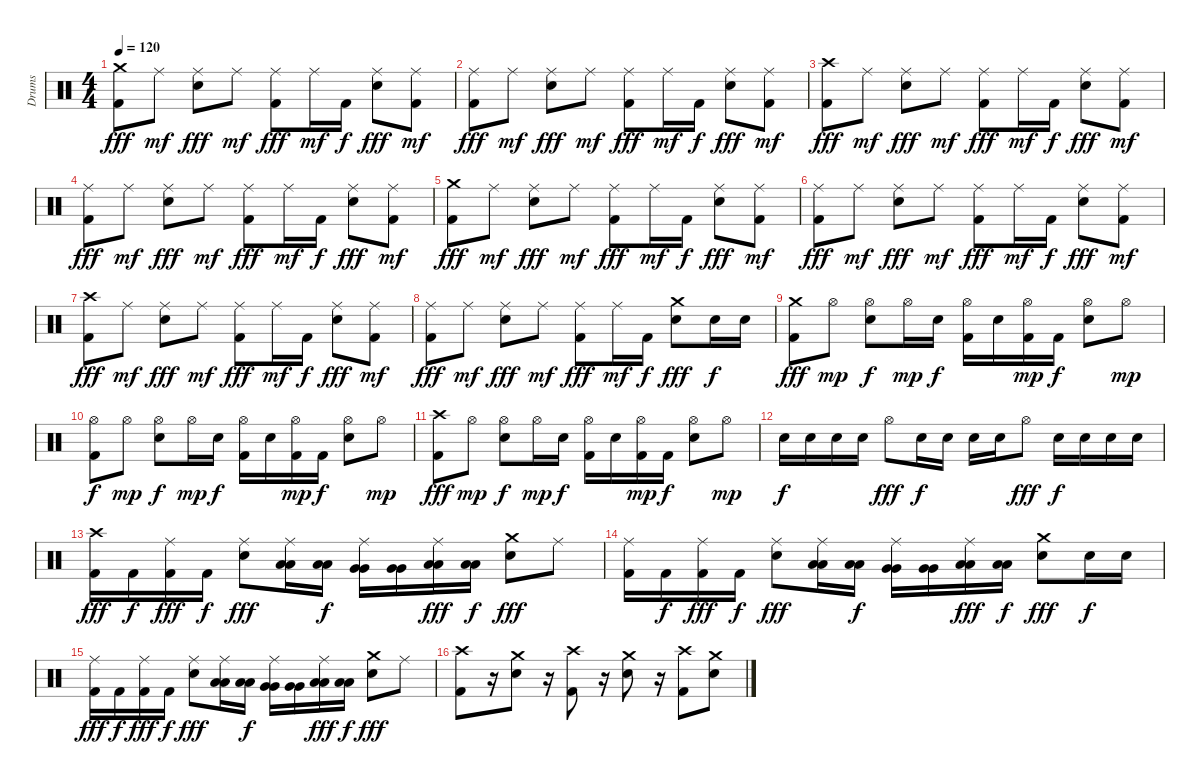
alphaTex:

\track ("Drums" "Drums") {instrument percussion}
\staff {score}
\articulation defaults
\ts (4 4)
\tempo 120
\clef neutral
\ks c
("Kick (hit) 2" "Crash medium (hit)").8{dy fff} "Ride (middle)".8{dy mf} ("Electric Snare (hit)" "Ride (middle)").8{dy fff} "Ride (middle)".8{dy mf} ("Kick (hit) 2" "Ride (middle)").8{dy fff} "Ride (middle)".16{dy mf} "Kick (hit) 2".16{dy f} ("Electric Snare (hit)" "Ride (middle)").8{dy fff} ("Kick (hit) 2" "Ride (middle)").8{dy mf} |
("Kick (hit) 2" "Ride (middle)").8{dy fff} "Ride (middle)".8{dy mf} ("Electric Snare (hit)" "Ride (middle)").8{dy fff} "Ride (middle)".8{dy mf} ("Kick (hit) 2" "Ride (middle)").8{dy fff} "Ride (middle)".16{dy mf} "Kick (hit) 2".16{dy f} ("Electric Snare (hit)" "Ride (middle)").8{dy fff} ("Kick (hit) 2" "Ride (middle)").8{dy mf} |
("Kick (hit) 2" "Crash high (hit)").8{dy fff} "Ride (middle)".8{dy mf} ("Electric Snare (hit)" "Ride (middle)").8{dy fff} "Ride (middle)".8{dy mf} ("Kick (hit) 2" "Ride (middle)").8{dy fff} "Ride (middle)".16{dy mf} "Kick (hit) 2".16{dy f} ("Electric Snare (hit)" "Ride (middle)").8{dy fff} ("Kick (hit) 2" "Ride (middle)").8{dy mf} |
("Kick (hit) 2" "Ride (middle)").8{dy fff} "Ride (middle)".8{dy mf} ("Electric Snare (hit)" "Ride (middle)").8{dy fff} "Ride (middle)".8{dy mf} ("Kick (hit) 2" "Ride (middle)").8{dy fff} "Ride (middle)".16{dy mf} "Kick (hit) 2".16{dy f} ("Electric Snare (hit)" "Ride (middle)").8{dy fff} ("Kick (hit) 2" "Ride (middle)").8{dy mf} |
("Kick (hit) 2" "Crash medium (hit)").8{dy fff} "Ride (middle)".8{dy mf} ("Electric Snare (hit)" "Ride (middle)").8{dy fff} "Ride (middle)".8{dy mf} ("Kick (hit) 2" "Ride (middle)").8{dy fff} "Ride (middle)".16{dy mf} "Kick (hit) 2".16{dy f} ("Electric Snare (hit)" "Ride (middle)").8{dy fff} ("Kick (hit) 2" "Ride (middle)").8{dy mf} |
("Kick (hit) 2" "Ride (middle)").8{dy fff} "Ride (middle)".8{dy mf} ("Electric Snare (hit)" "Ride (middle)").8{dy fff} "Ride (middle)".8{dy mf} ("Kick (hit) 2" "Ride (middle)").8{dy fff} "Ride (middle)".16{dy mf} "Kick (hit) 2".16{dy f} ("Electric Snare (hit)" "Ride (middle)").8{dy fff} ("Kick (hit) 2" "Ride (middle)").8{dy mf} |
("Kick (hit) 2" "Crash high (hit)").8{dy fff} "Ride (middle)".8{dy mf} ("Electric Snare (hit)" "Ride (middle)").8{dy fff} "Ride (middle)".8{dy mf} ("Kick (hit) 2" "Ride (middle)").8{dy fff} "Ride (middle)".16{dy mf} "Kick (hit) 2".16{dy f} ("Electric Snare (hit)" "Ride (middle)").8{dy fff} ("Kick (hit) 2" "Ride (middle)").8{dy mf} |
("Kick (hit) 2" "Ride (middle)").8{dy fff} "Ride (middle)".8{dy mf} ("Electric Snare (hit)" "Ride (middle)").8{dy fff} "Ride (middle)".8{dy mf} ("Kick (hit) 2" "Ride (middle)").8{dy fff} "Ride (middle)".16{dy mf} "Kick (hit) 2".16{dy f} ("Electric Snare (hit)" "Crash medium (hit)").8{dy fff} "Electric Snare (hit)".16{dy f} "Electric Snare (hit)".16 |
("Kick (hit) 2" "Crash medium (hit)").8{dy fff volume 10} "Hi-Hat (open)".8{dy mp} ("Electric Snare (hit)" "Hi-Hat (open)").8{dy f} "Hi-Hat (open)".16{dy mp} "Electric Snare (hit)".16{dy f} ("Kick (hit) 2" "Hi-Hat (open)").16 "Electric Snare (hit)".16 ("Kick (hit) 2" "Hi-Hat (open)").16{dy mp} "Kick (hit) 2".16{dy f} ("Electric Snare (hit)" "Hi-Hat (open)").8 "Hi-Hat (open)".8{dy mp} |
("Kick (hit) 2" "Hi-Hat (open)").8{dy f} "Hi-Hat (open)".8{dy mp} ("Electric Snare (hit)" "Hi-Hat (open)").8{dy f} "Hi-Hat (open)".16{dy mp} "Electric Snare (hit)".16{dy f} ("Kick (hit) 2" "Hi-Hat (open)").16 "Electric Snare (hit)".16 ("Kick (hit) 2" "Hi-Hat (open)").16{dy mp} "Kick (hit) 2".16{dy f} ("Electric Snare (hit)" "Hi-Hat (open)").8 "Hi-Hat (open)".8{dy mp} |
("Kick (hit) 2" "Crash high (hit)").8{dy fff} "Hi-Hat (open)".8{dy mp} ("Electric Snare (hit)" "Hi-Hat (open)").8{dy f} "Hi-Hat (open)".16{dy mp} "Electric Snare (hit)".16{dy f} ("Kick (hit) 2" "Hi-Hat (open)").16 "Electric Snare (hit)".16 ("Kick (hit) 2" "Hi-Hat (open)").16{dy mp} "Kick (hit) 2".16{dy f} ("Electric Snare (hit)" "Hi-Hat (open)").8 "Hi-Hat (open)".8{dy mp} |
"Electric Snare (hit)".16{dy f} "Electric Snare (hit)".16 "Electric Snare (hit)".16 "Electric Snare (hit)".16 "Hi-Hat (open)".8{dy fff} "Electric Snare (hit)".16{dy f} "Electric Snare (hit)".16 "Electric Snare (hit)".16 "Electric Snare (hit)".16 "Hi-Hat (open)".8{dy fff} "Electric Snare (hit)".16{dy f} "Electric Snare (hit)".16 "Electric Snare (hit)".16 "Electric Snare (hit)".16 |
("Kick (hit) 2" "Crash high (hit)").16{dy fff volume 8} "Kick (hit) 2".16{dy f} ("Kick (hit) 2" "Ride (middle)").16{dy fff} "Kick (hit) 2".16{dy f} ("Electric Snare (hit)" "Ride (middle)").8{dy fff} ("Low Tom (hit)" "Low Tom (hit)" "Ride (middle)").16 ("Low Tom (hit)" "Low Tom (hit)").16{dy f} ("Very Low Tom (hit)" "Very Low Tom (hit)" "Ride (middle)").16 ("Very Low Tom (hit)" "Very Low Tom (hit)").16 ("Low Floor Tom (hit)" "Low Floor Tom (hit)" "Ride (middle)").16{dy fff} ("Low Floor Tom (hit)" "Low Floor Tom (hit)").16{dy f} ("Electric Snare (hit)" "Crash medium (hit)").8{dy fff} "Ride (middle)".8 |
("Kick (hit) 2" "Ride (middle)").16 "Kick (hit) 2".16{dy f} ("Kick (hit) 2" "Ride (middle)").16{dy fff} "Kick (hit) 2".16{dy f} ("Electric Snare (hit)" "Ride (middle)").8{dy fff} ("Low Tom (hit)" "Low Tom (hit)" "Ride (middle)").16 ("Low Tom (hit)" "Low Tom (hit)").16{dy f} ("Very Low Tom (hit)" "Very Low Tom (hit)" "Ride (middle)").16 ("Very Low Tom (hit)" "Very Low Tom (hit)").16 ("Low Floor Tom (hit)" "Low Floor Tom (hit)" "Ride (middle)").16{dy fff} ("Low Floor Tom (hit)" "Low Floor Tom (hit)").16{dy f} ("Electric Snare (hit)" "Crash medium (hit)").8{dy fff} "Electric Snare (hit)".16{dy f} "Electric Snare (hit)".16 |
("Kick (hit) 2" "Ride (middle)").16{dy fff} "Kick (hit) 2".16{dy f} ("Kick (hit) 2" "Ride (middle)").16{dy fff} "Kick (hit) 2".16{dy f} ("Electric Snare (hit)" "Ride (middle)").8{dy fff} ("Low Tom (hit)" "Low Tom (hit)" "Ride (middle)").16 ("Low Tom (hit)" "Low Tom (hit)").16{dy f} ("Very Low Tom (hit)" "Very Low Tom (hit)" "Ride (middle)").16 ("Very Low Tom (hit)" "Very Low Tom (hit)").16 ("Low Floor Tom (hit)" "Low Floor Tom (hit)" "Ride (middle)").16{dy fff} ("Low Floor Tom (hit)" "Low Floor Tom (hit)").16{dy f} ("Electric Snare (hit)" "Crash medium (hit)").8{dy fff} "Ride (middle)".8 |
("Kick (hit) 2" "Crash high (hit)").8 r.16 ("Electric Snare (hit)" "Crash medium (hit)").8 r.16 ("Kick (hit) 2" "Crash high (hit)").8 r.16 ("Electric Snare (hit)" "Crash medium (hit)").8 r.16 ("Kick (hit) 2" "Crash high (hit)").8 ("Electric Snare (hit)" "Crash medium (hit)").8
